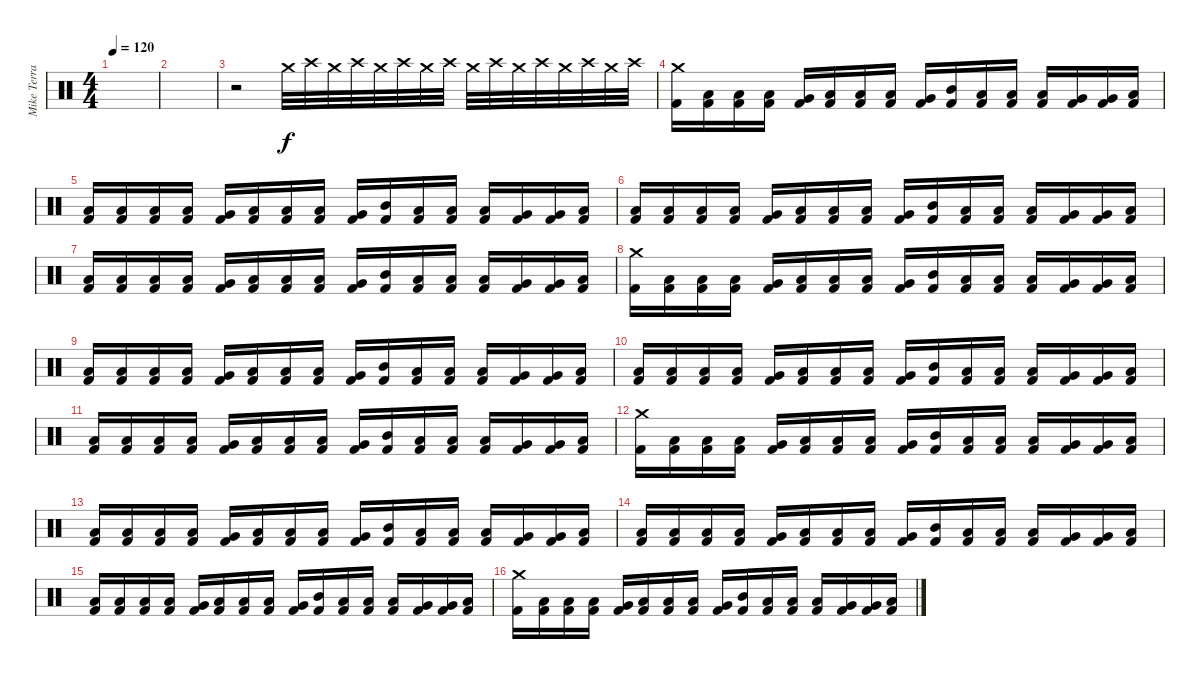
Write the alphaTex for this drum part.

\track ("Mike Terrana" "Mike Terra") {instrument percussion}
\staff {score}
\articulation defaults
\ts (4 4)
\tempo 120
\clef neutral
\ks c
|
|
r.2 "Crash medium (hit)".32{balance 0} "Crash high (hit)".32 "Crash medium (hit)".32 "Crash high (hit)".32 "Crash medium (hit)".32{balance 16} "Crash high (hit)".32 "Crash medium (hit)".32 "Crash high (hit)".32 "Crash medium (hit)".32 "Crash high (hit)".32 "Crash medium (hit)".32 "Crash high (hit)".32 "Crash medium (hit)".32 "Crash high (hit)".32 "Crash medium (hit)".32 "Crash high (hit)".32 |
("Crash medium (hit)" "Kick (hit) 2").16{dy f balance 8} ("Low Floor Tom (hit)" "Kick (hit) 2").16 ("Low Floor Tom (hit)" "Kick (hit) 2").16 ("Low Floor Tom (hit)" "Kick (hit) 2").16 ("Very Low Tom (hit)" "Kick (hit) 2").16 ("Low Floor Tom (hit)" "Kick (hit) 2").16 ("Low Floor Tom (hit)" "Kick (hit) 2").16 ("Low Floor Tom (hit)" "Kick (hit) 2").16 ("Very Low Tom (hit)" "Kick (hit) 2").16 ("Mid Tom (hit)" "Kick (hit) 2").16 ("Low Floor Tom (hit)" "Kick (hit) 2").16 ("Low Tom (hit)" "Kick (hit) 2").16 ("Low Tom (hit)" "Kick (hit) 2").16 ("Very Low Tom (hit)" "Kick (hit) 2").16 ("Very Low Tom (hit)" "Kick (hit) 2").16 ("Low Floor Tom (hit)" "Kick (hit) 2").16 |
("Low Tom (hit)" "Kick (hit) 2").16 ("Low Floor Tom (hit)" "Kick (hit) 2").16 ("Low Floor Tom (hit)" "Kick (hit) 2").16 ("Low Floor Tom (hit)" "Kick (hit) 2").16 ("Very Low Tom (hit)" "Kick (hit) 2").16 ("Low Floor Tom (hit)" "Kick (hit) 2").16 ("Low Floor Tom (hit)" "Kick (hit) 2").16 ("Low Floor Tom (hit)" "Kick (hit) 2").16 ("Very Low Tom (hit)" "Kick (hit) 2").16 ("Mid Tom (hit)" "Kick (hit) 2").16 ("Low Floor Tom (hit)" "Kick (hit) 2").16 ("Low Tom (hit)" "Kick (hit) 2").16 ("Low Tom (hit)" "Kick (hit) 2").16 ("Very Low Tom (hit)" "Kick (hit) 2").16 ("Very Low Tom (hit)" "Kick (hit) 2").16 ("Low Floor Tom (hit)" "Kick (hit) 2").16 |
("Low Tom (hit)" "Kick (hit) 2").16 ("Low Floor Tom (hit)" "Kick (hit) 2").16 ("Low Floor Tom (hit)" "Kick (hit) 2").16 ("Low Floor Tom (hit)" "Kick (hit) 2").16 ("Very Low Tom (hit)" "Kick (hit) 2").16 ("Low Floor Tom (hit)" "Kick (hit) 2").16 ("Low Floor Tom (hit)" "Kick (hit) 2").16 ("Low Floor Tom (hit)" "Kick (hit) 2").16 ("Very Low Tom (hit)" "Kick (hit) 2").16 ("Mid Tom (hit)" "Kick (hit) 2").16 ("Low Floor Tom (hit)" "Kick (hit) 2").16 ("Low Tom (hit)" "Kick (hit) 2").16 ("Low Tom (hit)" "Kick (hit) 2").16 ("Very Low Tom (hit)" "Kick (hit) 2").16 ("Very Low Tom (hit)" "Kick (hit) 2").16 ("Low Floor Tom (hit)" "Kick (hit) 2").16 |
("Low Tom (hit)" "Kick (hit) 2").16 ("Low Floor Tom (hit)" "Kick (hit) 2").16 ("Low Floor Tom (hit)" "Kick (hit) 2").16 ("Low Floor Tom (hit)" "Kick (hit) 2").16 ("Very Low Tom (hit)" "Kick (hit) 2").16 ("Low Floor Tom (hit)" "Kick (hit) 2").16 ("Low Floor Tom (hit)" "Kick (hit) 2").16 ("Low Floor Tom (hit)" "Kick (hit) 2").16 ("Very Low Tom (hit)" "Kick (hit) 2").16 ("Mid Tom (hit)" "Kick (hit) 2").16 ("Low Floor Tom (hit)" "Kick (hit) 2").16 ("Low Tom (hit)" "Kick (hit) 2").16 ("Low Tom (hit)" "Kick (hit) 2").16 ("Very Low Tom (hit)" "Kick (hit) 2").16 ("Very Low Tom (hit)" "Kick (hit) 2").16 ("Low Floor Tom (hit)" "Kick (hit) 2").16 |
("Crash medium (hit)" "Kick (hit) 2").16 ("Low Floor Tom (hit)" "Kick (hit) 2").16 ("Low Floor Tom (hit)" "Kick (hit) 2").16 ("Low Floor Tom (hit)" "Kick (hit) 2").16 ("Very Low Tom (hit)" "Kick (hit) 2").16 ("Low Floor Tom (hit)" "Kick (hit) 2").16 ("Low Floor Tom (hit)" "Kick (hit) 2").16 ("Low Floor Tom (hit)" "Kick (hit) 2").16 ("Very Low Tom (hit)" "Kick (hit) 2").16 ("Mid Tom (hit)" "Kick (hit) 2").16 ("Low Floor Tom (hit)" "Kick (hit) 2").16 ("Low Tom (hit)" "Kick (hit) 2").16 ("Low Tom (hit)" "Kick (hit) 2").16 ("Very Low Tom (hit)" "Kick (hit) 2").16 ("Very Low Tom (hit)" "Kick (hit) 2").16 ("Low Floor Tom (hit)" "Kick (hit) 2").16 |
("Low Tom (hit)" "Kick (hit) 2").16 ("Low Floor Tom (hit)" "Kick (hit) 2").16 ("Low Floor Tom (hit)" "Kick (hit) 2").16 ("Low Floor Tom (hit)" "Kick (hit) 2").16 ("Very Low Tom (hit)" "Kick (hit) 2").16 ("Low Floor Tom (hit)" "Kick (hit) 2").16 ("Low Floor Tom (hit)" "Kick (hit) 2").16 ("Low Floor Tom (hit)" "Kick (hit) 2").16 ("Very Low Tom (hit)" "Kick (hit) 2").16 ("Mid Tom (hit)" "Kick (hit) 2").16 ("Low Floor Tom (hit)" "Kick (hit) 2").16 ("Low Tom (hit)" "Kick (hit) 2").16 ("Low Tom (hit)" "Kick (hit) 2").16 ("Very Low Tom (hit)" "Kick (hit) 2").16 ("Very Low Tom (hit)" "Kick (hit) 2").16 ("Low Floor Tom (hit)" "Kick (hit) 2").16 |
("Low Tom (hit)" "Kick (hit) 2").16 ("Low Floor Tom (hit)" "Kick (hit) 2").16 ("Low Floor Tom (hit)" "Kick (hit) 2").16 ("Low Floor Tom (hit)" "Kick (hit) 2").16 ("Very Low Tom (hit)" "Kick (hit) 2").16 ("Low Floor Tom (hit)" "Kick (hit) 2").16 ("Low Floor Tom (hit)" "Kick (hit) 2").16 ("Low Floor Tom (hit)" "Kick (hit) 2").16 ("Very Low Tom (hit)" "Kick (hit) 2").16 ("Mid Tom (hit)" "Kick (hit) 2").16 ("Low Floor Tom (hit)" "Kick (hit) 2").16 ("Low Tom (hit)" "Kick (hit) 2").16 ("Low Tom (hit)" "Kick (hit) 2").16 ("Very Low Tom (hit)" "Kick (hit) 2").16 ("Very Low Tom (hit)" "Kick (hit) 2").16 ("Low Floor Tom (hit)" "Kick (hit) 2").16 |
("Low Tom (hit)" "Kick (hit) 2").16 ("Low Floor Tom (hit)" "Kick (hit) 2").16 ("Low Floor Tom (hit)" "Kick (hit) 2").16 ("Low Floor Tom (hit)" "Kick (hit) 2").16 ("Very Low Tom (hit)" "Kick (hit) 2").16 ("Low Floor Tom (hit)" "Kick (hit) 2").16 ("Low Floor Tom (hit)" "Kick (hit) 2").16 ("Low Floor Tom (hit)" "Kick (hit) 2").16 ("Very Low Tom (hit)" "Kick (hit) 2").16 ("Mid Tom (hit)" "Kick (hit) 2").16 ("Low Floor Tom (hit)" "Kick (hit) 2").16 ("Low Tom (hit)" "Kick (hit) 2").16 ("Low Tom (hit)" "Kick (hit) 2").16 ("Very Low Tom (hit)" "Kick (hit) 2").16 ("Very Low Tom (hit)" "Kick (hit) 2").16 ("Low Floor Tom (hit)" "Kick (hit) 2").16 |
("Crash medium (hit)" "Kick (hit) 2").16 ("Low Floor Tom (hit)" "Kick (hit) 2").16 ("Low Floor Tom (hit)" "Kick (hit) 2").16 ("Low Floor Tom (hit)" "Kick (hit) 2").16 ("Very Low Tom (hit)" "Kick (hit) 2").16 ("Low Floor Tom (hit)" "Kick (hit) 2").16 ("Low Floor Tom (hit)" "Kick (hit) 2").16 ("Low Floor Tom (hit)" "Kick (hit) 2").16 ("Very Low Tom (hit)" "Kick (hit) 2").16 ("Mid Tom (hit)" "Kick (hit) 2").16 ("Low Floor Tom (hit)" "Kick (hit) 2").16 ("Low Tom (hit)" "Kick (hit) 2").16 ("Low Tom (hit)" "Kick (hit) 2").16 ("Very Low Tom (hit)" "Kick (hit) 2").16 ("Very Low Tom (hit)" "Kick (hit) 2").16 ("Low Floor Tom (hit)" "Kick (hit) 2").16 |
("Low Tom (hit)" "Kick (hit) 2").16 ("Low Floor Tom (hit)" "Kick (hit) 2").16 ("Low Floor Tom (hit)" "Kick (hit) 2").16 ("Low Floor Tom (hit)" "Kick (hit) 2").16 ("Very Low Tom (hit)" "Kick (hit) 2").16 ("Low Floor Tom (hit)" "Kick (hit) 2").16 ("Low Floor Tom (hit)" "Kick (hit) 2").16 ("Low Floor Tom (hit)" "Kick (hit) 2").16 ("Very Low Tom (hit)" "Kick (hit) 2").16 ("Mid Tom (hit)" "Kick (hit) 2").16 ("Low Floor Tom (hit)" "Kick (hit) 2").16 ("Low Tom (hit)" "Kick (hit) 2").16 ("Low Tom (hit)" "Kick (hit) 2").16 ("Very Low Tom (hit)" "Kick (hit) 2").16 ("Very Low Tom (hit)" "Kick (hit) 2").16 ("Low Floor Tom (hit)" "Kick (hit) 2").16 |
("Low Tom (hit)" "Kick (hit) 2").16 ("Low Floor Tom (hit)" "Kick (hit) 2").16 ("Low Floor Tom (hit)" "Kick (hit) 2").16 ("Low Floor Tom (hit)" "Kick (hit) 2").16 ("Very Low Tom (hit)" "Kick (hit) 2").16 ("Low Floor Tom (hit)" "Kick (hit) 2").16 ("Low Floor Tom (hit)" "Kick (hit) 2").16 ("Low Floor Tom (hit)" "Kick (hit) 2").16 ("Very Low Tom (hit)" "Kick (hit) 2").16 ("Mid Tom (hit)" "Kick (hit) 2").16 ("Low Floor Tom (hit)" "Kick (hit) 2").16 ("Low Tom (hit)" "Kick (hit) 2").16 ("Low Tom (hit)" "Kick (hit) 2").16 ("Very Low Tom (hit)" "Kick (hit) 2").16 ("Very Low Tom (hit)" "Kick (hit) 2").16 ("Low Floor Tom (hit)" "Kick (hit) 2").16 |
("Low Tom (hit)" "Kick (hit) 2").16 ("Low Floor Tom (hit)" "Kick (hit) 2").16 ("Low Floor Tom (hit)" "Kick (hit) 2").16 ("Low Floor Tom (hit)" "Kick (hit) 2").16 ("Very Low Tom (hit)" "Kick (hit) 2").16 ("Low Floor Tom (hit)" "Kick (hit) 2").16 ("Low Floor Tom (hit)" "Kick (hit) 2").16 ("Low Floor Tom (hit)" "Kick (hit) 2").16 ("Very Low Tom (hit)" "Kick (hit) 2").16 ("Mid Tom (hit)" "Kick (hit) 2").16 ("Low Floor Tom (hit)" "Kick (hit) 2").16 ("Low Tom (hit)" "Kick (hit) 2").16 ("Low Tom (hit)" "Kick (hit) 2").16 ("Very Low Tom (hit)" "Kick (hit) 2").16 ("Very Low Tom (hit)" "Kick (hit) 2").16 ("Low Floor Tom (hit)" "Kick (hit) 2").16 |
("Crash medium (hit)" "Kick (hit) 2").16 ("Low Floor Tom (hit)" "Kick (hit) 2").16 ("Low Floor Tom (hit)" "Kick (hit) 2").16 ("Low Floor Tom (hit)" "Kick (hit) 2").16 ("Very Low Tom (hit)" "Kick (hit) 2").16 ("Low Floor Tom (hit)" "Kick (hit) 2").16 ("Low Floor Tom (hit)" "Kick (hit) 2").16 ("Low Floor Tom (hit)" "Kick (hit) 2").16 ("Very Low Tom (hit)" "Kick (hit) 2").16 ("Mid Tom (hit)" "Kick (hit) 2").16 ("Low Floor Tom (hit)" "Kick (hit) 2").16 ("Low Tom (hit)" "Kick (hit) 2").16 ("Low Tom (hit)" "Kick (hit) 2").16 ("Very Low Tom (hit)" "Kick (hit) 2").16 ("Very Low Tom (hit)" "Kick (hit) 2").16 ("Low Floor Tom (hit)" "Kick (hit) 2").16
